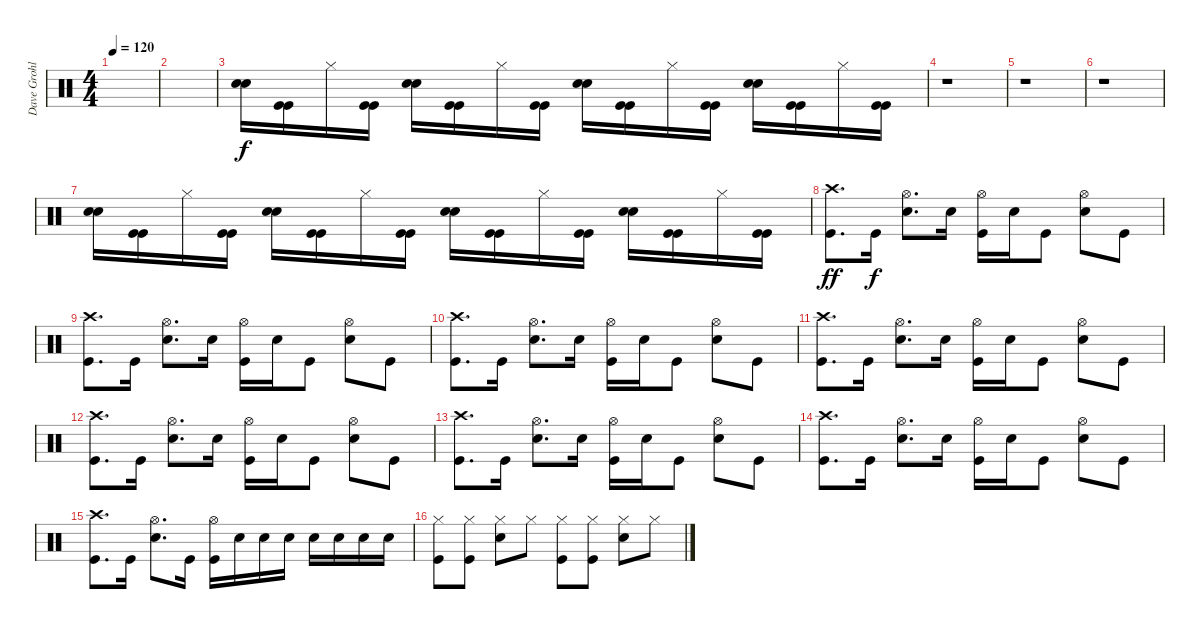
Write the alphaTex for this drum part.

\track ("Dave Grohl - Drums" "Dave Grohl") {instrument percussion}
\staff {score}
\articulation defaults
\ts (4 4)
\tempo 120
\clef neutral
\ks c
|
|
("Snare (hit) 2" "Snare (hit) 2").16 ("Kick (hit)" "Kick (hit)").16 "Hi-Hat (closed)".16 ("Kick (hit)" "Kick (hit)").16 ("Snare (hit) 2" "Snare (hit) 2").16 ("Kick (hit)" "Kick (hit)").16 "Hi-Hat (closed)".16 ("Kick (hit)" "Kick (hit)").16 ("Snare (hit) 2" "Snare (hit) 2").16 ("Kick (hit)" "Kick (hit)").16 "Hi-Hat (closed)".16 ("Kick (hit)" "Kick (hit)").16 ("Snare (hit) 2" "Snare (hit) 2").16 ("Kick (hit)" "Kick (hit)").16 "Hi-Hat (closed)".16 ("Kick (hit)" "Kick (hit)").16 |
r.1 |
r.1 |
r.1 |
("Snare (hit) 2" "Snare (hit) 2").16 ("Kick (hit)" "Kick (hit)").16 "Hi-Hat (closed)".16 ("Kick (hit)" "Kick (hit)").16 ("Snare (hit) 2" "Snare (hit) 2").16 ("Kick (hit)" "Kick (hit)").16 "Hi-Hat (closed)".16 ("Kick (hit)" "Kick (hit)").16 ("Snare (hit) 2" "Snare (hit) 2").16 ("Kick (hit)" "Kick (hit)").16 "Hi-Hat (closed)".16 ("Kick (hit)" "Kick (hit)").16 ("Snare (hit) 2" "Snare (hit) 2").16 ("Kick (hit)" "Kick (hit)").16 "Hi-Hat (closed)".16 ("Kick (hit)" "Kick (hit)").16 |
("Crash high (hit)" "Kick (hit)").8{d dy ff} "Kick (hit)".16{dy f} ("Hi-Hat (open)" "Snare (hit) 2").8{d} "Snare (hit) 2".16 ("Hi-Hat (open)" "Kick (hit)").16 "Snare (hit) 2".16 "Kick (hit)".8 ("Hi-Hat (open)" "Snare (hit) 2").8 "Kick (hit)".8 |
("Crash high (hit)" "Kick (hit)").8{d} "Kick (hit)".16 ("Hi-Hat (open)" "Snare (hit) 2").8{d} "Snare (hit) 2".16 ("Hi-Hat (open)" "Kick (hit)").16 "Snare (hit) 2".16 "Kick (hit)".8 ("Hi-Hat (open)" "Snare (hit) 2").8 "Kick (hit)".8 |
("Crash high (hit)" "Kick (hit)").8{d} "Kick (hit)".16 ("Hi-Hat (open)" "Snare (hit) 2").8{d} "Snare (hit) 2".16 ("Hi-Hat (open)" "Kick (hit)").16 "Snare (hit) 2".16 "Kick (hit)".8 ("Hi-Hat (open)" "Snare (hit) 2").8 "Kick (hit)".8 |
("Crash high (hit)" "Kick (hit)").8{d} "Kick (hit)".16 ("Hi-Hat (open)" "Snare (hit) 2").8{d} "Snare (hit) 2".16 ("Hi-Hat (open)" "Kick (hit)").16 "Snare (hit) 2".16 "Kick (hit)".8 ("Hi-Hat (open)" "Snare (hit) 2").8 "Kick (hit)".8 |
("Crash high (hit)" "Kick (hit)").8{d} "Kick (hit)".16 ("Hi-Hat (open)" "Snare (hit) 2").8{d} "Snare (hit) 2".16 ("Hi-Hat (open)" "Kick (hit)").16 "Snare (hit) 2".16 "Kick (hit)".8 ("Hi-Hat (open)" "Snare (hit) 2").8 "Kick (hit)".8 |
("Crash high (hit)" "Kick (hit)").8{d} "Kick (hit)".16 ("Hi-Hat (open)" "Snare (hit) 2").8{d} "Snare (hit) 2".16 ("Hi-Hat (open)" "Kick (hit)").16 "Snare (hit) 2".16 "Kick (hit)".8 ("Hi-Hat (open)" "Snare (hit) 2").8 "Kick (hit)".8 |
("Crash high (hit)" "Kick (hit)").8{d} "Kick (hit)".16 ("Hi-Hat (open)" "Snare (hit) 2").8{d} "Snare (hit) 2".16 ("Hi-Hat (open)" "Kick (hit)").16 "Snare (hit) 2".16 "Kick (hit)".8 ("Hi-Hat (open)" "Snare (hit) 2").8 "Kick (hit)".8 |
("Crash high (hit)" "Kick (hit)").8{d} "Kick (hit)".16 ("Hi-Hat (open)" "Snare (hit) 2").8{d} "Kick (hit)".16 ("Hi-Hat (open)" "Kick (hit)").16 "Snare (hit) 2".16 "Snare (hit) 2".16 "Snare (hit) 2".16 "Snare (hit) 2".16 "Snare (hit) 2".16 "Snare (hit) 2".16 "Snare (hit) 2".16 |
("Hi-Hat (closed)" "Kick (hit)").8 ("Hi-Hat (closed)" "Kick (hit)").8 ("Hi-Hat (closed)" "Snare (hit) 2").8 "Hi-Hat (closed)".8 ("Hi-Hat (closed)" "Kick (hit)").8 ("Hi-Hat (closed)" "Kick (hit)").8 ("Hi-Hat (closed)" "Snare (hit) 2").8 "Hi-Hat (closed)".8
